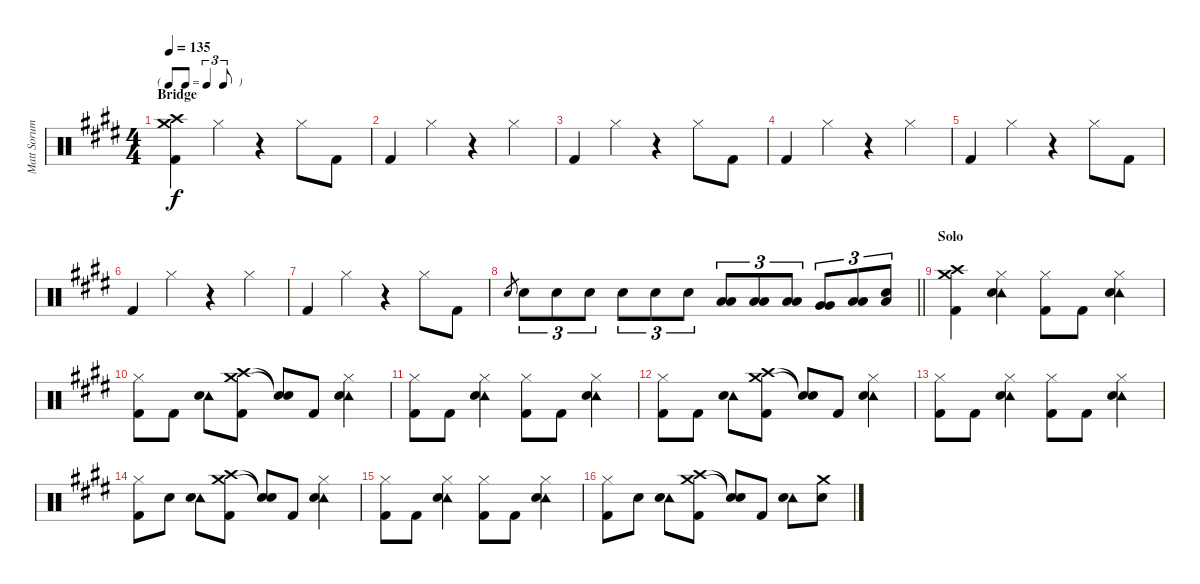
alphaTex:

\track ("Matt Sorum - Drums" "Matt Sorum") {instrument percussion}
\staff {score}
\articulation defaults
\ts (4 4)
\tf triplet8th
\section ("" "Bridge")
\tempo 135
\clef neutral
\ks e
("Crash medium (hit)" "Crash high (hit)" "Kick (hit) 2").4{dy f} "Hi-Hat (closed)".4 r.4 "Hi-Hat (closed)".8 "Kick (hit) 2".8 |
"Kick (hit) 2".4 "Hi-Hat (closed)".4 r.4 "Hi-Hat (closed)".4 |
"Kick (hit) 2".4 "Hi-Hat (closed)".4 r.4 "Hi-Hat (closed)".8 "Kick (hit) 2".8 |
"Kick (hit) 2".4 "Hi-Hat (closed)".4 r.4 "Hi-Hat (closed)".4 |
"Kick (hit) 2".4 "Hi-Hat (closed)".4 r.4 "Hi-Hat (closed)".8 "Kick (hit) 2".8 |
"Kick (hit) 2".4 "Hi-Hat (closed)".4 r.4 "Hi-Hat (closed)".4 |
"Kick (hit) 2".4 "Hi-Hat (closed)".4 r.4 "Hi-Hat (closed)".8 "Kick (hit) 2".8 |
\barLineRight lightlight "Snare (hit) 2".8{gr} "Snare (hit) 2".8{tu (3 2)} "Snare (hit) 2".8{tu (3 2)} "Snare (hit) 2".8{tu (3 2)} "Snare (hit) 2".8{tu (3 2)} "Snare (hit) 2".8{tu (3 2)} "Snare (hit) 2".8{tu (3 2)}
("Low Tom (hit)" "Low Tom (hit)").8{tu (3 2)} ("Low Tom (hit)" "Low Tom (hit)").8{tu (3 2)} ("Low Tom (hit)" "Low Tom (hit)").8{tu (3 2)} ("Very Low Tom (hit)" "Very Low Tom (hit)").8{tu (3 2)} ("Low Floor Tom (hit)" "Low Floor Tom (hit)").8{tu (3 2)} ("Low Floor Tom (hit)" "Snare (hit)").8{tu (3 2)} |
\section ("" "Solo")
("Crash medium (hit)" "Crash high (hit)" "Kick (hit) 2").4 ("Hi-Hat (closed)" "Tambourine (hit)" "Snare (hit) 2").4 ("Hi-Hat (closed)" "Kick (hit) 2").8 "Kick (hit) 2".8 ("Hi-Hat (closed)" "Tambourine (hit)" "Snare (hit) 2").4 |
("Hi-Hat (closed)" "Kick (hit) 2").8 "Kick (hit) 2".8 ("Tambourine (hit)" "Snare (hit) 2").8 ("Crash medium (hit)" "Crash high (hit)" "Kick (hit) 2").8 ("Snare (hit)"{t} "Snare (hit)"{t}).8 "Kick (hit) 2".8 ("Hi-Hat (closed)" "Tambourine (hit)" "Snare (hit) 2").4 |
("Hi-Hat (closed)" "Kick (hit) 2").8 "Kick (hit) 2".8 ("Hi-Hat (closed)" "Tambourine (hit)" "Snare (hit) 2").4 ("Hi-Hat (closed)" "Kick (hit) 2").8 "Kick (hit) 2".8 ("Hi-Hat (closed)" "Tambourine (hit)" "Snare (hit) 2").4 |
("Hi-Hat (closed)" "Kick (hit) 2").8 "Kick (hit) 2".8 ("Tambourine (hit)" "Snare (hit) 2").8 ("Crash medium (hit)" "Crash high (hit)" "Kick (hit) 2").8 ("Snare (hit)"{t} "Snare (hit)"{t}).8 "Kick (hit) 2".8 ("Hi-Hat (closed)" "Tambourine (hit)" "Snare (hit) 2").4 |
("Hi-Hat (closed)" "Kick (hit) 2").8 "Kick (hit) 2".8 ("Hi-Hat (closed)" "Tambourine (hit)" "Snare (hit) 2").4 ("Hi-Hat (closed)" "Kick (hit) 2").8 "Kick (hit) 2".8 ("Hi-Hat (closed)" "Tambourine (hit)" "Snare (hit) 2").4 |
("Hi-Hat (closed)" "Kick (hit) 2").8 "Snare (hit) 2".8 ("Tambourine (hit)" "Snare (hit) 2").8 ("Crash medium (hit)" "Crash high (hit)" "Kick (hit) 2").8 ("Snare (hit)"{t} "Snare (hit)"{t}).8 "Kick (hit) 2".8 ("Hi-Hat (closed)" "Tambourine (hit)" "Snare (hit) 2").4 |
("Hi-Hat (closed)" "Kick (hit) 2").8 "Kick (hit) 2".8 ("Hi-Hat (closed)" "Tambourine (hit)" "Snare (hit) 2").4 ("Hi-Hat (closed)" "Kick (hit) 2").8 "Kick (hit) 2".8 ("Hi-Hat (closed)" "Tambourine (hit)" "Snare (hit) 2").4 |
("Hi-Hat (closed)" "Kick (hit) 2").8 "Snare (hit) 2".8 ("Tambourine (hit)" "Snare (hit) 2").8 ("Crash medium (hit)" "Crash high (hit)" "Kick (hit) 2").8 ("Snare (hit)"{t} "Snare (hit)"{t}).8 "Kick (hit) 2".8 ("Tambourine (hit)" "Snare (hit) 2").8 ("Crash medium (hit)" "Snare (hit) 2").8
